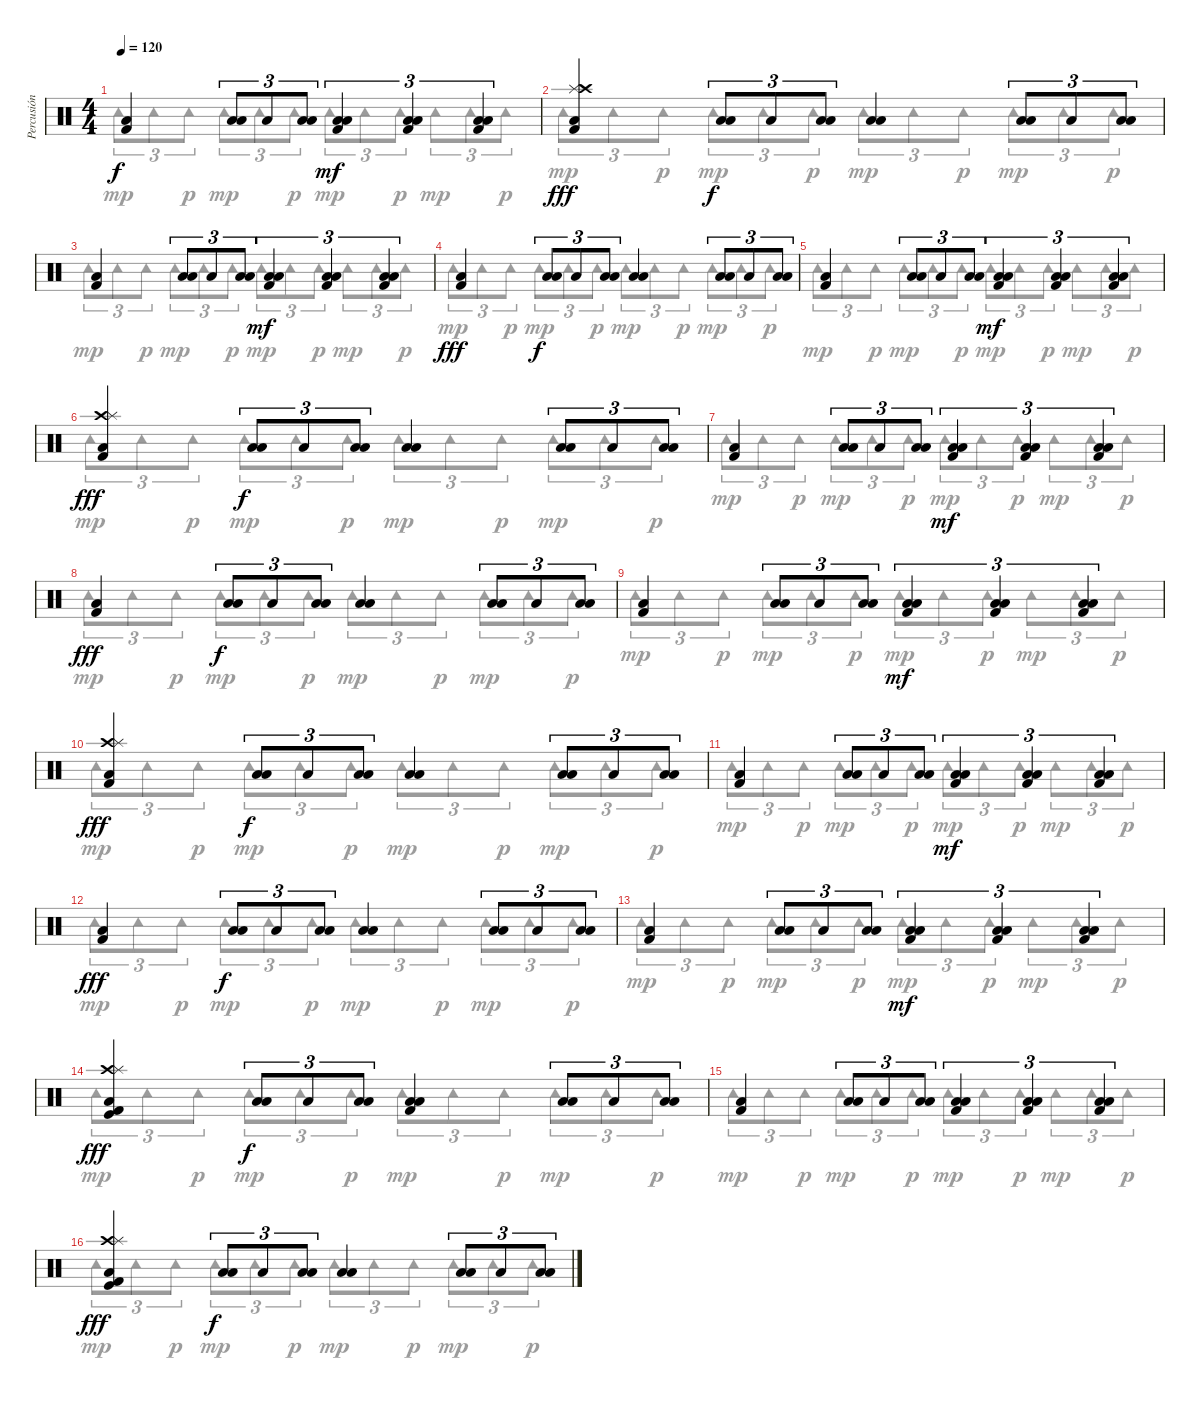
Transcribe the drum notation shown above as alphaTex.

\track ("Percusión" "Percusión") {instrument percussion}
\staff {score}
\articulation defaults
\voice
\ts (4 4)
\tempo 120
\clef neutral
\ks c
("Low Floor Tom (hit)" "Kick (hit) 2").4{dy f} ("Low Floor Tom (hit)" "Low Floor Tom (hit)").8{tu (3 2)} "Low Floor Tom (hit)".8{tu (3 2)} ("Low Floor Tom (hit)" "Low Floor Tom (hit)").8{tu (3 2)} ("Kick (hit) 2" "Low Floor Tom (hit)" "Low Floor Tom (hit)").4{tu (3 2) dy mf} ("Kick (hit) 2" "Low Floor Tom (hit)" "Low Floor Tom (hit)").4{tu (3 2)} ("Kick (hit) 2" "Low Floor Tom (hit)" "Low Floor Tom (hit)").4{tu (3 2)} |
("Splash (hit)" "Crash high (hit)" "Low Floor Tom (hit)" "Kick (hit) 2").4{dy fff} ("Low Floor Tom (hit)" "Low Floor Tom (hit)").8{tu (3 2) dy f} "Low Floor Tom (hit)".8{tu (3 2)} ("Low Floor Tom (hit)" "Low Floor Tom (hit)").8{tu (3 2)} ("Low Floor Tom (hit)" "Low Floor Tom (hit)").4 ("Low Floor Tom (hit)" "Low Floor Tom (hit)").8{tu (3 2)} "Low Floor Tom (hit)".8{tu (3 2)} ("Low Floor Tom (hit)" "Low Floor Tom (hit)").8{tu (3 2)} |
("Low Floor Tom (hit)" "Kick (hit) 2").4 ("Low Floor Tom (hit)" "Low Floor Tom (hit)").8{tu (3 2)} "Low Floor Tom (hit)".8{tu (3 2)} ("Low Floor Tom (hit)" "Low Floor Tom (hit)").8{tu (3 2)} ("Kick (hit) 2" "Low Floor Tom (hit)" "Low Floor Tom (hit)").4{tu (3 2) dy mf} ("Kick (hit) 2" "Low Floor Tom (hit)" "Low Floor Tom (hit)").4{tu (3 2)} ("Kick (hit) 2" "Low Floor Tom (hit)" "Low Floor Tom (hit)").4{tu (3 2)} |
("Low Floor Tom (hit)" "Kick (hit) 2").4{dy fff} ("Low Floor Tom (hit)" "Low Floor Tom (hit)").8{tu (3 2) dy f} "Low Floor Tom (hit)".8{tu (3 2)} ("Low Floor Tom (hit)" "Low Floor Tom (hit)").8{tu (3 2)} ("Low Floor Tom (hit)" "Low Floor Tom (hit)").4 ("Low Floor Tom (hit)" "Low Floor Tom (hit)").8{tu (3 2)} "Low Floor Tom (hit)".8{tu (3 2)} ("Low Floor Tom (hit)" "Low Floor Tom (hit)").8{tu (3 2)} |
("Low Floor Tom (hit)" "Kick (hit) 2").4 ("Low Floor Tom (hit)" "Low Floor Tom (hit)").8{tu (3 2)} "Low Floor Tom (hit)".8{tu (3 2)} ("Low Floor Tom (hit)" "Low Floor Tom (hit)").8{tu (3 2)} ("Kick (hit) 2" "Low Floor Tom (hit)" "Low Floor Tom (hit)").4{tu (3 2) dy mf} ("Kick (hit) 2" "Low Floor Tom (hit)" "Low Floor Tom (hit)").4{tu (3 2)} ("Kick (hit) 2" "Low Floor Tom (hit)" "Low Floor Tom (hit)").4{tu (3 2)} |
("Crash high (hit)" "Splash (hit)" "Low Floor Tom (hit)" "Kick (hit) 2").4{dy fff} ("Low Floor Tom (hit)" "Low Floor Tom (hit)").8{tu (3 2) dy f} "Low Floor Tom (hit)".8{tu (3 2)} ("Low Floor Tom (hit)" "Low Floor Tom (hit)").8{tu (3 2)} ("Low Floor Tom (hit)" "Low Floor Tom (hit)").4 ("Low Floor Tom (hit)" "Low Floor Tom (hit)").8{tu (3 2)} "Low Floor Tom (hit)".8{tu (3 2)} ("Low Floor Tom (hit)" "Low Floor Tom (hit)").8{tu (3 2)} |
("Low Floor Tom (hit)" "Kick (hit) 2").4 ("Low Floor Tom (hit)" "Low Floor Tom (hit)").8{tu (3 2)} "Low Floor Tom (hit)".8{tu (3 2)} ("Low Floor Tom (hit)" "Low Floor Tom (hit)").8{tu (3 2)} ("Kick (hit) 2" "Low Floor Tom (hit)" "Low Floor Tom (hit)").4{tu (3 2) dy mf} ("Kick (hit) 2" "Low Floor Tom (hit)" "Low Floor Tom (hit)").4{tu (3 2)} ("Kick (hit) 2" "Low Floor Tom (hit)" "Low Floor Tom (hit)").4{tu (3 2)} |
("Low Floor Tom (hit)" "Kick (hit) 2").4{dy fff} ("Low Floor Tom (hit)" "Low Floor Tom (hit)").8{tu (3 2) dy f} "Low Floor Tom (hit)".8{tu (3 2)} ("Low Floor Tom (hit)" "Low Floor Tom (hit)").8{tu (3 2)} ("Low Floor Tom (hit)" "Low Floor Tom (hit)").4 ("Low Floor Tom (hit)" "Low Floor Tom (hit)").8{tu (3 2)} "Low Floor Tom (hit)".8{tu (3 2)} ("Low Floor Tom (hit)" "Low Floor Tom (hit)").8{tu (3 2)} |
("Low Floor Tom (hit)" "Kick (hit) 2").4 ("Low Floor Tom (hit)" "Low Floor Tom (hit)").8{tu (3 2)} "Low Floor Tom (hit)".8{tu (3 2)} ("Low Floor Tom (hit)" "Low Floor Tom (hit)").8{tu (3 2)} ("Kick (hit) 2" "Low Floor Tom (hit)" "Low Floor Tom (hit)").4{tu (3 2) dy mf} ("Kick (hit) 2" "Low Floor Tom (hit)" "Low Floor Tom (hit)").4{tu (3 2)} ("Kick (hit) 2" "Low Floor Tom (hit)" "Low Floor Tom (hit)").4{tu (3 2)} |
("Crash high (hit)" "Splash (hit)" "Low Floor Tom (hit)" "Kick (hit) 2").4{dy fff} ("Low Floor Tom (hit)" "Low Floor Tom (hit)").8{tu (3 2) dy f} "Low Floor Tom (hit)".8{tu (3 2)} ("Low Floor Tom (hit)" "Low Floor Tom (hit)").8{tu (3 2)} ("Low Floor Tom (hit)" "Low Floor Tom (hit)").4 ("Low Floor Tom (hit)" "Low Floor Tom (hit)").8{tu (3 2)} "Low Floor Tom (hit)".8{tu (3 2)} ("Low Floor Tom (hit)" "Low Floor Tom (hit)").8{tu (3 2)} |
("Low Floor Tom (hit)" "Kick (hit) 2").4 ("Low Floor Tom (hit)" "Low Floor Tom (hit)").8{tu (3 2)} "Low Floor Tom (hit)".8{tu (3 2)} ("Low Floor Tom (hit)" "Low Floor Tom (hit)").8{tu (3 2)} ("Kick (hit) 2" "Low Floor Tom (hit)" "Low Floor Tom (hit)").4{tu (3 2) dy mf} ("Kick (hit) 2" "Low Floor Tom (hit)" "Low Floor Tom (hit)").4{tu (3 2)} ("Kick (hit) 2" "Low Floor Tom (hit)" "Low Floor Tom (hit)").4{tu (3 2)} |
("Low Floor Tom (hit)" "Kick (hit) 2").4{dy fff} ("Low Floor Tom (hit)" "Low Floor Tom (hit)").8{tu (3 2) dy f} "Low Floor Tom (hit)".8{tu (3 2)} ("Low Floor Tom (hit)" "Low Floor Tom (hit)").8{tu (3 2)} ("Low Floor Tom (hit)" "Low Floor Tom (hit)").4 ("Low Floor Tom (hit)" "Low Floor Tom (hit)").8{tu (3 2)} "Low Floor Tom (hit)".8{tu (3 2)} ("Low Floor Tom (hit)" "Low Floor Tom (hit)").8{tu (3 2)} |
("Low Floor Tom (hit)" "Kick (hit) 2").4 ("Low Floor Tom (hit)" "Low Floor Tom (hit)").8{tu (3 2)} "Low Floor Tom (hit)".8{tu (3 2)} ("Low Floor Tom (hit)" "Low Floor Tom (hit)").8{tu (3 2)} ("Kick (hit) 2" "Low Floor Tom (hit)" "Low Floor Tom (hit)").4{tu (3 2) dy mf} ("Kick (hit) 2" "Low Floor Tom (hit)" "Low Floor Tom (hit)").4{tu (3 2)} ("Kick (hit) 2" "Low Floor Tom (hit)" "Low Floor Tom (hit)").4{tu (3 2)} |
("Crash high (hit)" "Splash (hit)" "Kick (hit)" "Low Floor Tom (hit)" "Kick (hit) 2").4{dy fff} ("Low Floor Tom (hit)" "Low Floor Tom (hit)").8{tu (3 2) dy f} "Low Floor Tom (hit)".8{tu (3 2)} ("Low Floor Tom (hit)" "Low Floor Tom (hit)").8{tu (3 2)} ("Kick (hit) 2" "Low Floor Tom (hit)" "Low Floor Tom (hit)").4 ("Low Floor Tom (hit)" "Low Floor Tom (hit)").8{tu (3 2)} "Low Floor Tom (hit)".8{tu (3 2)} ("Low Floor Tom (hit)" "Low Floor Tom (hit)").8{tu (3 2)} |
("Low Floor Tom (hit)" "Kick (hit) 2").4 ("Low Floor Tom (hit)" "Low Floor Tom (hit)").8{tu (3 2)} "Low Floor Tom (hit)".8{tu (3 2)} ("Low Floor Tom (hit)" "Low Floor Tom (hit)").8{tu (3 2)} ("Kick (hit) 2" "Low Floor Tom (hit)" "Low Floor Tom (hit)").4{tu (3 2)} ("Kick (hit) 2" "Low Floor Tom (hit)" "Low Floor Tom (hit)").4{tu (3 2)} ("Kick (hit) 2" "Low Floor Tom (hit)" "Low Floor Tom (hit)").4{tu (3 2)} |
("Crash high (hit)" "Splash (hit)" "Kick (hit)" "Low Floor Tom (hit)" "Kick (hit) 2").4{dy fff} ("Low Floor Tom (hit)" "Low Floor Tom (hit)").8{tu (3 2) dy f} "Low Floor Tom (hit)".8{tu (3 2)} ("Low Floor Tom (hit)" "Low Floor Tom (hit)").8{tu (3 2)} ("Low Floor Tom (hit)" "Low Floor Tom (hit)").4 ("Low Floor Tom (hit)" "Low Floor Tom (hit)").8{tu (3 2)} "Low Floor Tom (hit)".8{tu (3 2)} ("Low Floor Tom (hit)" "Low Floor Tom (hit)").8{tu (3 2)}
\voice
\clef neutral
\ottava regular
\simile none
\ks c "Tambourine (hit)".8{tu (3 2) dy mp} "Tambourine (hit)".8{tu (3 2)} "Tambourine (hit)".8{tu (3 2) dy p} "Tambourine (hit)".8{tu (3 2) dy mp} "Tambourine (hit)".8{tu (3 2)} "Tambourine (hit)".8{tu (3 2) dy p} "Tambourine (hit)".8{tu (3 2) dy mp} "Tambourine (hit)".8{tu (3 2)} "Tambourine (hit)".8{tu (3 2) dy p} "Tambourine (hit)".8{tu (3 2) dy mp} "Tambourine (hit)".8{tu (3 2)} "Tambourine (hit)".8{tu (3 2) dy p}
|
"Tambourine (hit)".8{tu (3 2) dy mp} "Tambourine (hit)".8{tu (3 2)} "Tambourine (hit)".8{tu (3 2) dy p} "Tambourine (hit)".8{tu (3 2) dy mp} "Tambourine (hit)".8{tu (3 2)} "Tambourine (hit)".8{tu (3 2) dy p} "Tambourine (hit)".8{tu (3 2) dy mp} "Tambourine (hit)".8{tu (3 2)} "Tambourine (hit)".8{tu (3 2) dy p} "Tambourine (hit)".8{tu (3 2) dy mp} "Tambourine (hit)".8{tu (3 2)} "Tambourine (hit)".8{tu (3 2) dy p} |
"Tambourine (hit)".8{tu (3 2) dy mp} "Tambourine (hit)".8{tu (3 2)} "Tambourine (hit)".8{tu (3 2) dy p} "Tambourine (hit)".8{tu (3 2) dy mp} "Tambourine (hit)".8{tu (3 2)} "Tambourine (hit)".8{tu (3 2) dy p} "Tambourine (hit)".8{tu (3 2) dy mp} "Tambourine (hit)".8{tu (3 2)} "Tambourine (hit)".8{tu (3 2) dy p} "Tambourine (hit)".8{tu (3 2) dy mp} "Tambourine (hit)".8{tu (3 2)} "Tambourine (hit)".8{tu (3 2) dy p} |
"Tambourine (hit)".8{tu (3 2) dy mp} "Tambourine (hit)".8{tu (3 2)} "Tambourine (hit)".8{tu (3 2) dy p} "Tambourine (hit)".8{tu (3 2) dy mp} "Tambourine (hit)".8{tu (3 2)} "Tambourine (hit)".8{tu (3 2) dy p} "Tambourine (hit)".8{tu (3 2) dy mp} "Tambourine (hit)".8{tu (3 2)} "Tambourine (hit)".8{tu (3 2) dy p} "Tambourine (hit)".8{tu (3 2) dy mp} "Tambourine (hit)".8{tu (3 2)} "Tambourine (hit)".8{tu (3 2) dy p} |
"Tambourine (hit)".8{tu (3 2) dy mp} "Tambourine (hit)".8{tu (3 2)} "Tambourine (hit)".8{tu (3 2) dy p} "Tambourine (hit)".8{tu (3 2) dy mp} "Tambourine (hit)".8{tu (3 2)} "Tambourine (hit)".8{tu (3 2) dy p} "Tambourine (hit)".8{tu (3 2) dy mp} "Tambourine (hit)".8{tu (3 2)} "Tambourine (hit)".8{tu (3 2) dy p} "Tambourine (hit)".8{tu (3 2) dy mp} "Tambourine (hit)".8{tu (3 2)} "Tambourine (hit)".8{tu (3 2) dy p} |
"Tambourine (hit)".8{tu (3 2) dy mp} "Tambourine (hit)".8{tu (3 2)} "Tambourine (hit)".8{tu (3 2) dy p} "Tambourine (hit)".8{tu (3 2) dy mp} "Tambourine (hit)".8{tu (3 2)} "Tambourine (hit)".8{tu (3 2) dy p} "Tambourine (hit)".8{tu (3 2) dy mp} "Tambourine (hit)".8{tu (3 2)} "Tambourine (hit)".8{tu (3 2) dy p} "Tambourine (hit)".8{tu (3 2) dy mp} "Tambourine (hit)".8{tu (3 2)} "Tambourine (hit)".8{tu (3 2) dy p} |
"Tambourine (hit)".8{tu (3 2) dy mp} "Tambourine (hit)".8{tu (3 2)} "Tambourine (hit)".8{tu (3 2) dy p} "Tambourine (hit)".8{tu (3 2) dy mp} "Tambourine (hit)".8{tu (3 2)} "Tambourine (hit)".8{tu (3 2) dy p} "Tambourine (hit)".8{tu (3 2) dy mp} "Tambourine (hit)".8{tu (3 2)} "Tambourine (hit)".8{tu (3 2) dy p} "Tambourine (hit)".8{tu (3 2) dy mp} "Tambourine (hit)".8{tu (3 2)} "Tambourine (hit)".8{tu (3 2) dy p} |
"Tambourine (hit)".8{tu (3 2) dy mp} "Tambourine (hit)".8{tu (3 2)} "Tambourine (hit)".8{tu (3 2) dy p} "Tambourine (hit)".8{tu (3 2) dy mp} "Tambourine (hit)".8{tu (3 2)} "Tambourine (hit)".8{tu (3 2) dy p} "Tambourine (hit)".8{tu (3 2) dy mp} "Tambourine (hit)".8{tu (3 2)} "Tambourine (hit)".8{tu (3 2) dy p} "Tambourine (hit)".8{tu (3 2) dy mp} "Tambourine (hit)".8{tu (3 2)} "Tambourine (hit)".8{tu (3 2) dy p} |
"Tambourine (hit)".8{tu (3 2) dy mp} "Tambourine (hit)".8{tu (3 2)} "Tambourine (hit)".8{tu (3 2) dy p} "Tambourine (hit)".8{tu (3 2) dy mp} "Tambourine (hit)".8{tu (3 2)} "Tambourine (hit)".8{tu (3 2) dy p} "Tambourine (hit)".8{tu (3 2) dy mp} "Tambourine (hit)".8{tu (3 2)} "Tambourine (hit)".8{tu (3 2) dy p} "Tambourine (hit)".8{tu (3 2) dy mp} "Tambourine (hit)".8{tu (3 2)} "Tambourine (hit)".8{tu (3 2) dy p} |
"Tambourine (hit)".8{tu (3 2) dy mp} "Tambourine (hit)".8{tu (3 2)} "Tambourine (hit)".8{tu (3 2) dy p} "Tambourine (hit)".8{tu (3 2) dy mp} "Tambourine (hit)".8{tu (3 2)} "Tambourine (hit)".8{tu (3 2) dy p} "Tambourine (hit)".8{tu (3 2) dy mp} "Tambourine (hit)".8{tu (3 2)} "Tambourine (hit)".8{tu (3 2) dy p} "Tambourine (hit)".8{tu (3 2) dy mp} "Tambourine (hit)".8{tu (3 2)} "Tambourine (hit)".8{tu (3 2) dy p} |
"Tambourine (hit)".8{tu (3 2) dy mp} "Tambourine (hit)".8{tu (3 2)} "Tambourine (hit)".8{tu (3 2) dy p} "Tambourine (hit)".8{tu (3 2) dy mp} "Tambourine (hit)".8{tu (3 2)} "Tambourine (hit)".8{tu (3 2) dy p} "Tambourine (hit)".8{tu (3 2) dy mp} "Tambourine (hit)".8{tu (3 2)} "Tambourine (hit)".8{tu (3 2) dy p} "Tambourine (hit)".8{tu (3 2) dy mp} "Tambourine (hit)".8{tu (3 2)} "Tambourine (hit)".8{tu (3 2) dy p} |
"Tambourine (hit)".8{tu (3 2) dy mp} "Tambourine (hit)".8{tu (3 2)} "Tambourine (hit)".8{tu (3 2) dy p} "Tambourine (hit)".8{tu (3 2) dy mp} "Tambourine (hit)".8{tu (3 2)} "Tambourine (hit)".8{tu (3 2) dy p} "Tambourine (hit)".8{tu (3 2) dy mp} "Tambourine (hit)".8{tu (3 2)} "Tambourine (hit)".8{tu (3 2) dy p} "Tambourine (hit)".8{tu (3 2) dy mp} "Tambourine (hit)".8{tu (3 2)} "Tambourine (hit)".8{tu (3 2) dy p} |
"Tambourine (hit)".8{tu (3 2) dy mp} "Tambourine (hit)".8{tu (3 2)} "Tambourine (hit)".8{tu (3 2) dy p} "Tambourine (hit)".8{tu (3 2) dy mp} "Tambourine (hit)".8{tu (3 2)} "Tambourine (hit)".8{tu (3 2) dy p} "Tambourine (hit)".8{tu (3 2) dy mp} "Tambourine (hit)".8{tu (3 2)} "Tambourine (hit)".8{tu (3 2) dy p} "Tambourine (hit)".8{tu (3 2) dy mp} "Tambourine (hit)".8{tu (3 2)} "Tambourine (hit)".8{tu (3 2) dy p} |
"Tambourine (hit)".8{tu (3 2) dy mp} "Tambourine (hit)".8{tu (3 2)} "Tambourine (hit)".8{tu (3 2) dy p} "Tambourine (hit)".8{tu (3 2) dy mp} "Tambourine (hit)".8{tu (3 2)} "Tambourine (hit)".8{tu (3 2) dy p} "Tambourine (hit)".8{tu (3 2) dy mp} "Tambourine (hit)".8{tu (3 2)} "Tambourine (hit)".8{tu (3 2) dy p} "Tambourine (hit)".8{tu (3 2) dy mp} "Tambourine (hit)".8{tu (3 2)} "Tambourine (hit)".8{tu (3 2) dy p} |
"Tambourine (hit)".8{tu (3 2) dy mp} "Tambourine (hit)".8{tu (3 2)} "Tambourine (hit)".8{tu (3 2) dy p} "Tambourine (hit)".8{tu (3 2) dy mp} "Tambourine (hit)".8{tu (3 2)} "Tambourine (hit)".8{tu (3 2) dy p} "Tambourine (hit)".8{tu (3 2) dy mp} "Tambourine (hit)".8{tu (3 2)} "Tambourine (hit)".8{tu (3 2) dy p} "Tambourine (hit)".8{tu (3 2) dy mp} "Tambourine (hit)".8{tu (3 2)} "Tambourine (hit)".8{tu (3 2) dy p} |
"Tambourine (hit)".8{tu (3 2) dy mp} "Tambourine (hit)".8{tu (3 2)} "Tambourine (hit)".8{tu (3 2) dy p} "Tambourine (hit)".8{tu (3 2) dy mp} "Tambourine (hit)".8{tu (3 2)} "Tambourine (hit)".8{tu (3 2) dy p} "Tambourine (hit)".8{tu (3 2) dy mp} "Tambourine (hit)".8{tu (3 2)} "Tambourine (hit)".8{tu (3 2) dy p} "Tambourine (hit)".8{tu (3 2) dy mp} "Tambourine (hit)".8{tu (3 2)} "Tambourine (hit)".8{tu (3 2) dy p}
